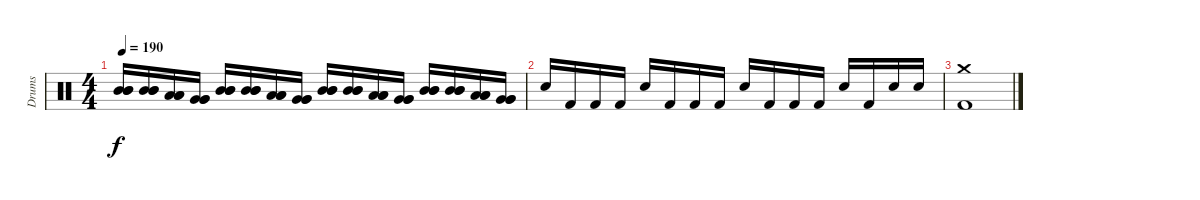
\track ("Drums" "Drums") {instrument percussion}
\staff {score}
\articulation defaults
\ts (4 4)
\tempo 190
\clef neutral
\ks c
("Mid Tom (hit)" "Mid Tom (hit)" "Mid Tom (hit)").16{dy f} ("Mid Tom (hit)" "Mid Tom (hit)" "Mid Tom (hit)").16 ("Low Tom (hit)" "Low Tom (hit)" "Low Tom (hit)").16 ("Very Low Tom (hit)" "Very Low Tom (hit)" "Very Low Tom (hit)").16 ("Mid Tom (hit)" "Mid Tom (hit)" "Mid Tom (hit)").16 ("Mid Tom (hit)" "Mid Tom (hit)" "Mid Tom (hit)").16 ("Low Tom (hit)" "Low Tom (hit)" "Low Tom (hit)").16 ("Very Low Tom (hit)" "Very Low Tom (hit)" "Very Low Tom (hit)").16 ("Mid Tom (hit)" "Mid Tom (hit)" "Mid Tom (hit)").16 ("Mid Tom (hit)" "Mid Tom (hit)" "Mid Tom (hit)").16 ("Low Tom (hit)" "Low Tom (hit)" "Low Tom (hit)").16 ("Very Low Tom (hit)" "Very Low Tom (hit)" "Very Low Tom (hit)").16 ("Mid Tom (hit)" "Mid Tom (hit)" "Mid Tom (hit)").16 ("Mid Tom (hit)" "Mid Tom (hit)" "Mid Tom (hit)").16 ("Low Tom (hit)" "Low Tom (hit)" "Low Tom (hit)").16 ("Very Low Tom (hit)" "Very Low Tom (hit)" "Very Low Tom (hit)").16 |
"Electric Snare (hit)".16 "Kick (hit) 2".16 "Kick (hit) 2".16 "Kick (hit) 2".16 "Electric Snare (hit)".16 "Kick (hit) 2".16 "Kick (hit) 2".16 "Kick (hit) 2".16 "Electric Snare (hit)".16 "Kick (hit) 2".16 "Kick (hit) 2".16 "Kick (hit) 2".16 "Electric Snare (hit)".16 "Kick (hit) 2".16 "Electric Snare (hit)".16 "Electric Snare (hit)".16 |
("Crash medium (hit)" "Kick (hit) 2").1
